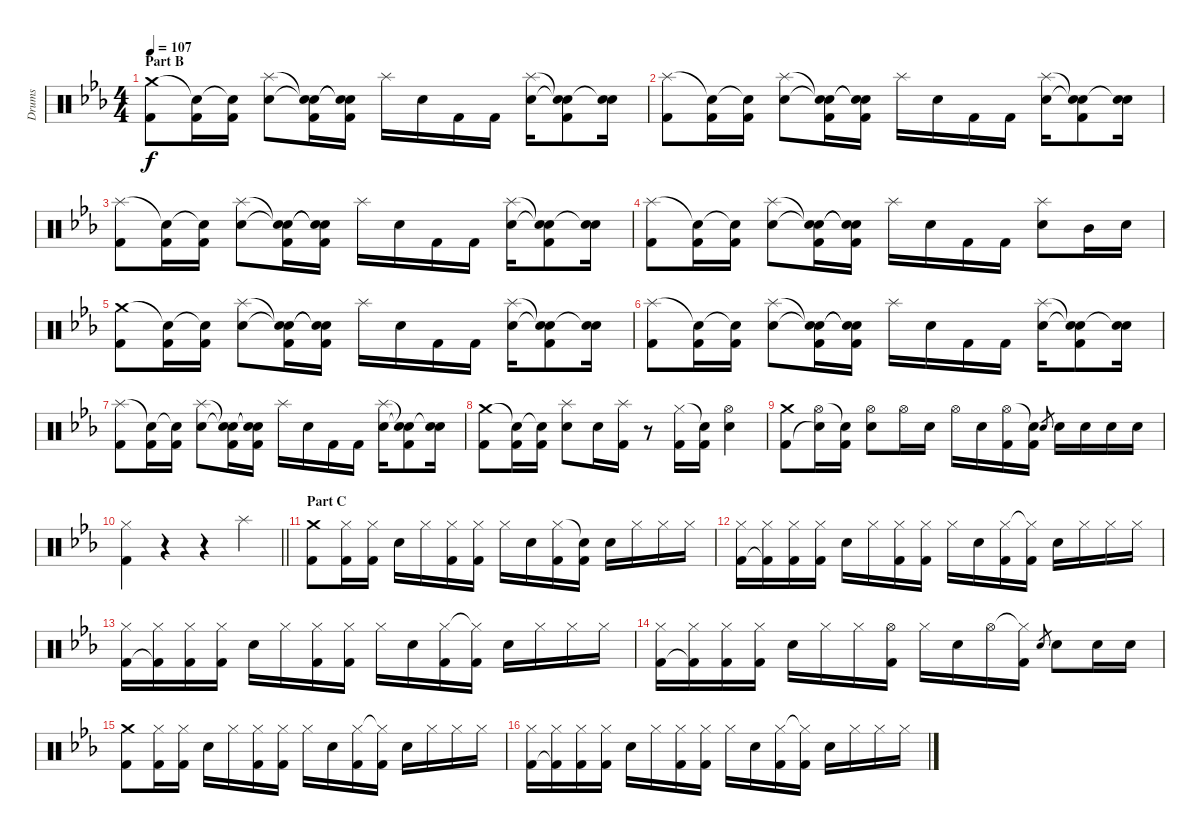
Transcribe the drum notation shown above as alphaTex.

\track ("Drums" "Drums") {instrument percussion}
\staff {score}
\articulation defaults
\ts (4 4)
\section ("" "Part B")
\tempo 107
\clef neutral
\ks eb
("Crash medium (hit)" "Kick (hit) 2").8{dy f} ("Snare (hit)"{t} "Kick (hit) 2").16 ("Snare (hit)"{t} "Kick (hit) 2").16 ("Splash (hit)" "Electric Snare (hit)").8 ("Snare (hit)"{t} "Snare (hit)"{t} "Kick (hit) 2").16 ("Snare (hit)"{t} "Snare (hit)"{t} "Kick (hit) 2").16 "Splash (hit)".16 "Electric Snare (hit)".16 "Kick (hit) 2".16 "Kick (hit) 2".16 ("Splash (hit)" "Electric Snare (hit)").16 ("Snare (hit)"{t} "Snare (hit)"{t} "Kick (hit) 2").8 ("Electric Snare (hit)" "Snare (hit)"{t}).16 |
("Splash (hit)" "Kick (hit) 2").8 ("Snare (hit)"{t} "Kick (hit) 2").16 ("Snare (hit)"{t} "Kick (hit) 2").16 ("Splash (hit)" "Electric Snare (hit)").8 ("Snare (hit)"{t} "Snare (hit)"{t} "Kick (hit) 2").16 ("Snare (hit)"{t} "Snare (hit)"{t} "Kick (hit) 2").16 "Splash (hit)".16 "Electric Snare (hit)".16 "Kick (hit) 2".16 "Kick (hit) 2".16 ("Splash (hit)" "Electric Snare (hit)").16 ("Snare (hit)"{t} "Snare (hit)"{t} "Kick (hit) 2").8 ("Electric Snare (hit)" "Snare (hit)"{t}).16 |
("Splash (hit)" "Kick (hit) 2").8 ("Snare (hit)"{t} "Kick (hit) 2").16 ("Snare (hit)"{t} "Kick (hit) 2").16 ("Splash (hit)" "Electric Snare (hit)").8 ("Snare (hit)"{t} "Snare (hit)"{t} "Kick (hit) 2").16 ("Snare (hit)"{t} "Snare (hit)"{t} "Kick (hit) 2").16 "Splash (hit)".16 "Electric Snare (hit)".16 "Kick (hit) 2".16 "Kick (hit) 2".16 ("Splash (hit)" "Electric Snare (hit)").16 ("Snare (hit)"{t} "Snare (hit)"{t} "Kick (hit) 2").8 ("Electric Snare (hit)" "Snare (hit)"{t}).16 |
("Splash (hit)" "Kick (hit) 2").8 ("Snare (hit)"{t} "Kick (hit) 2").16 ("Snare (hit)"{t} "Kick (hit) 2").16 ("Splash (hit)" "Electric Snare (hit)").8 ("Snare (hit)"{t} "Snare (hit)"{t} "Kick (hit) 2").16 ("Snare (hit)"{t} "Snare (hit)"{t} "Kick (hit) 2").16 "Splash (hit)".16 "Electric Snare (hit)".16 "Kick (hit) 2".16 "Kick (hit) 2".16 ("Splash (hit)" "Electric Snare (hit)").8 "Mid Tom (hit)".16 "Electric Snare (hit)".16 |
("Crash medium (hit)" "Kick (hit) 2").8 ("Snare (hit)"{t} "Kick (hit) 2").16 ("Snare (hit)"{t} "Kick (hit) 2").16 ("Splash (hit)" "Electric Snare (hit)").8 ("Snare (hit)"{t} "Snare (hit)"{t} "Kick (hit) 2").16 ("Snare (hit)"{t} "Snare (hit)"{t} "Kick (hit) 2").16 "Splash (hit)".16 "Electric Snare (hit)".16 "Kick (hit) 2".16 "Kick (hit) 2".16 ("Splash (hit)" "Electric Snare (hit)").16 ("Snare (hit)"{t} "Snare (hit)"{t} "Kick (hit) 2").8 ("Electric Snare (hit)" "Snare (hit)"{t}).16 |
("Splash (hit)" "Kick (hit) 2").8 ("Snare (hit)"{t} "Kick (hit) 2").16 ("Snare (hit)"{t} "Kick (hit) 2").16 ("Splash (hit)" "Electric Snare (hit)").8 ("Snare (hit)"{t} "Snare (hit)"{t} "Kick (hit) 2").16 ("Snare (hit)"{t} "Snare (hit)"{t} "Kick (hit) 2").16 "Splash (hit)".16 "Electric Snare (hit)".16 "Kick (hit) 2".16 "Kick (hit) 2".16 ("Splash (hit)" "Electric Snare (hit)").16 ("Snare (hit)"{t} "Snare (hit)"{t} "Kick (hit) 2").8 ("Electric Snare (hit)" "Snare (hit)"{t}).16 |
("Splash (hit)" "Kick (hit) 2").8 ("Snare (hit)"{t} "Kick (hit) 2").16 ("Snare (hit)"{t} "Kick (hit) 2").16 ("Splash (hit)" "Electric Snare (hit)").8 ("Snare (hit)"{t} "Snare (hit)"{t} "Kick (hit) 2").16 ("Snare (hit)"{t} "Snare (hit)"{t} "Kick (hit) 2").16 "Splash (hit)".16 "Electric Snare (hit)".16 "Kick (hit) 2".16 "Kick (hit) 2".16 ("Splash (hit)" "Electric Snare (hit)").16 ("Snare (hit)"{t} "Snare (hit)"{t} "Kick (hit) 2").8 ("Electric Snare (hit)" "Snare (hit)"{t}).16 |
("Crash medium (hit)" "Kick (hit) 2").8 ("Snare (hit)"{t} "Kick (hit) 2").16 ("Snare (hit)"{t} "Kick (hit) 2").16 ("Splash (hit)" "Electric Snare (hit)").8 "Electric Snare (hit)".16 ("Splash (hit)" "Kick (hit) 2").16 r.8 ("Hi-Hat (closed)" "Kick (hit) 2").16 ("Snare (hit)"{t} "Kick (hit) 2").16 ("Hi-Hat (open)" "Electric Snare (hit)").4 |
("Crash medium (hit)" "Kick (hit) 2").8 ("Hi-Hat (open)" "Snare (hit)"{t}).16 ("Snare (hit)"{t} "Kick (hit) 2").16 ("Hi-Hat (open)" "Electric Snare (hit)").8 "Hi-Hat (open)".16 "Electric Snare (hit)".16 "Hi-Hat (open)".16 "Electric Snare (hit)".16 ("Hi-Hat (open)" "Kick (hit) 2").16 ("Snare (hit)"{t} "Kick (hit) 2").16 "Electric Snare (hit)".8{gr} "Electric Snare (hit)".16 "Electric Snare (hit)".16 "Electric Snare (hit)".16 "Electric Snare (hit)".16 |
\barLineRight lightlight
("Hi-Hat (closed)" "Kick (hit) 2").4 r.4 r.4 "Splash (hit)".4 |
\section ("" "Part C")
("Crash medium (hit)" "Kick (hit) 2").8 ("Hi-Hat (closed)" "Kick (hit) 2").16 ("Hi-Hat (closed)" "Kick (hit) 2").16 "Electric Snare (hit)".16 "Hi-Hat (closed)".16 ("Hi-Hat (closed)" "Kick (hit) 2").16 ("Hi-Hat (closed)" "Kick (hit) 2").16 "Hi-Hat (closed)".16 "Electric Snare (hit)".16 ("Hi-Hat (closed)" "Kick (hit) 2").16 ("Snare (hit)"{t} "Kick (hit) 2").16 "Electric Snare (hit)".16 "Hi-Hat (closed)".16 "Hi-Hat (closed)".16 "Hi-Hat (closed)".16 |
("Hi-Hat (closed)" "Kick (hit) 2").16 ("Hi-Hat (closed)" "Kick (hit) 2"{t}).16 ("Hi-Hat (closed)" "Kick (hit) 2").16 ("Hi-Hat (closed)" "Kick (hit) 2").16 "Electric Snare (hit)".16 "Hi-Hat (closed)".16 ("Hi-Hat (closed)" "Kick (hit) 2").16 ("Hi-Hat (closed)" "Kick (hit) 2").16 "Hi-Hat (closed)".16 "Electric Snare (hit)".16 ("Hi-Hat (closed)" "Kick (hit) 2").16 ("Hi-Hat (closed)"{t} "Kick (hit) 2").16 "Electric Snare (hit)".16 "Hi-Hat (closed)".16 "Hi-Hat (closed)".16 "Hi-Hat (closed)".16 |
("Hi-Hat (closed)" "Kick (hit) 2").16 ("Hi-Hat (closed)" "Kick (hit) 2"{t}).16 ("Hi-Hat (closed)" "Kick (hit) 2").16 ("Hi-Hat (closed)" "Kick (hit) 2").16 "Electric Snare (hit)".16 "Hi-Hat (closed)".16 ("Hi-Hat (closed)" "Kick (hit) 2").16 ("Hi-Hat (closed)" "Kick (hit) 2").16 "Hi-Hat (closed)".16 "Electric Snare (hit)".16 ("Hi-Hat (closed)" "Kick (hit) 2").16 ("Hi-Hat (closed)"{t} "Kick (hit) 2").16 "Electric Snare (hit)".16 "Hi-Hat (closed)".16 "Hi-Hat (closed)".16 "Hi-Hat (closed)".16 |
("Hi-Hat (closed)" "Kick (hit) 2").16 ("Hi-Hat (closed)" "Kick (hit) 2"{t}).16 ("Hi-Hat (closed)" "Kick (hit) 2").16 ("Hi-Hat (closed)" "Kick (hit) 2").16 "Electric Snare (hit)".16 "Hi-Hat (closed)".16 "Hi-Hat (closed)".16 ("Hi-Hat (open)" "Kick (hit) 2").16 "Hi-Hat (closed)".16 "Electric Snare (hit)".16 "Hi-Hat (open)".16 ("Hi-Hat (closed)"{t} "Kick (hit) 2").16 "Electric Snare (hit)".8{gr} "Electric Snare (hit)".8 "Electric Snare (hit)".16 "Electric Snare (hit)".16 |
("Crash medium (hit)" "Kick (hit) 2").8 ("Hi-Hat (closed)" "Kick (hit) 2").16 ("Hi-Hat (closed)" "Kick (hit) 2").16 "Electric Snare (hit)".16 "Hi-Hat (closed)".16 ("Hi-Hat (closed)" "Kick (hit) 2").16 ("Hi-Hat (closed)" "Kick (hit) 2").16 "Hi-Hat (closed)".16 "Electric Snare (hit)".16 ("Hi-Hat (closed)" "Kick (hit) 2").16 ("Hi-Hat (closed)"{t} "Kick (hit) 2").16 "Electric Snare (hit)".16 "Hi-Hat (closed)".16 "Hi-Hat (closed)".16 "Hi-Hat (closed)".16 |
("Hi-Hat (closed)" "Kick (hit) 2").16 ("Hi-Hat (closed)" "Kick (hit) 2"{t}).16 ("Hi-Hat (closed)" "Kick (hit) 2").16 ("Hi-Hat (closed)" "Kick (hit) 2").16 "Electric Snare (hit)".16 "Hi-Hat (closed)".16 ("Hi-Hat (closed)" "Kick (hit) 2").16 ("Hi-Hat (closed)" "Kick (hit) 2").16 "Hi-Hat (closed)".16 "Electric Snare (hit)".16 ("Hi-Hat (closed)" "Kick (hit) 2").16 ("Hi-Hat (closed)"{t} "Kick (hit) 2").16 "Electric Snare (hit)".16 "Hi-Hat (closed)".16 "Hi-Hat (closed)".16 "Hi-Hat (closed)".16
